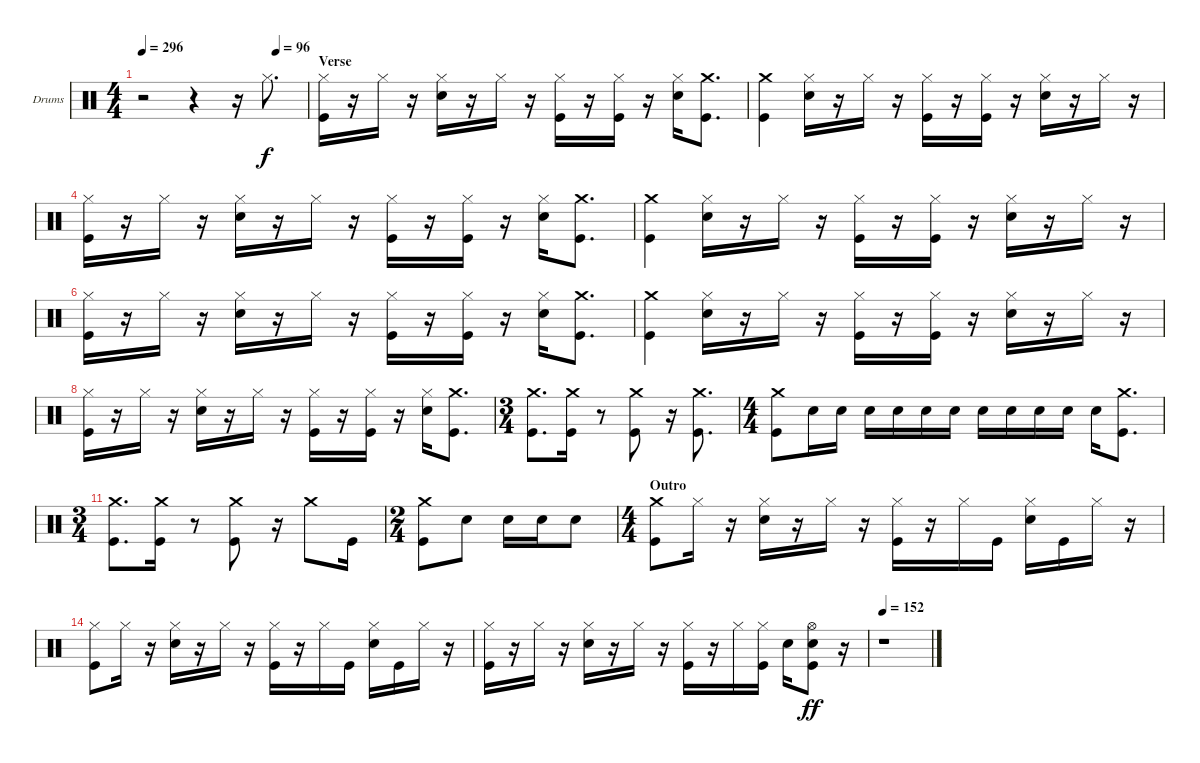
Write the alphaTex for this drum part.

\bracketExtendMode nobrackets
\firstSystemTrackNameOrientation horizontal
\otherSystemsTrackNameOrientation horizontal
\defaultBarNumberDisplay FirstOfSystem
\track ("Drumkit" "Drums") {instrument percussion}
\staff {score}
\articulation defaults
\ts (4 4)
\tempo 296
\tempo (96 0.8125)
\clef neutral
\ks c
r.2{dy f} r.4 r.16 "Hi-Hat (closed)".8{d} |
\section ("" "Verse")
("Hi-Hat (closed)" "Kick (hit)").16 r.16 "Hi-Hat (closed)".16 r.16 ("Snare (hit) 2" "Hi-Hat (closed)").16 r.16 "Hi-Hat (closed)".16 r.16 ("Kick (hit)" "Hi-Hat (closed)").16 r.16 ("Kick (hit)" "Hi-Hat (closed)").16 r.16 ("Hi-Hat (closed)" "Snare (hit) 2").16 ("Crash medium (hit)" "Kick (hit)").8{d} |
\scale
0.240586 ("Crash medium (hit)" "Kick (hit)").4 ("Snare (hit) 2" "Hi-Hat (closed)").16 r.16 "Hi-Hat (closed)".16 r.16 ("Kick (hit)" "Hi-Hat (closed)").16 r.16 ("Kick (hit)" "Hi-Hat (closed)").16 r.16 ("Snare (hit) 2" "Hi-Hat (closed)").16 r.16 "Hi-Hat (closed)".16 r.16 |
\scale
0.213551 ("Hi-Hat (closed)" "Kick (hit)").16 r.16 "Hi-Hat (closed)".16 r.16 ("Snare (hit) 2" "Hi-Hat (closed)").16 r.16 "Hi-Hat (closed)".16 r.16 ("Hi-Hat (closed)" "Kick (hit)").16 r.16 ("Kick (hit)" "Hi-Hat (closed)").16 r.16 ("Hi-Hat (closed)" "Snare (hit) 2").16 ("Crash medium (hit)" "Kick (hit)").8{d} |
\scale
0.286412 ("Crash medium (hit)" "Kick (hit)").4 ("Snare (hit) 2" "Hi-Hat (closed)").16 r.16 "Hi-Hat (closed)".16 r.16 ("Kick (hit)" "Hi-Hat (closed)").16 r.16 ("Kick (hit)" "Hi-Hat (closed)").16 r.16 ("Snare (hit) 2" "Hi-Hat (closed)").16 r.16 "Hi-Hat (closed)".16 r.16 |
\scale
0.259414 ("Hi-Hat (closed)" "Kick (hit)").16 r.16 "Hi-Hat (closed)".16 r.16 ("Snare (hit) 2" "Hi-Hat (closed)").16 r.16 "Hi-Hat (closed)".16 r.16 ("Hi-Hat (closed)" "Kick (hit)").16 r.16 ("Kick (hit)" "Hi-Hat (closed)").16 r.16 ("Hi-Hat (closed)" "Snare (hit) 2").16 ("Crash medium (hit)" "Kick (hit)").8{d} |
("Crash medium (hit)" "Kick (hit)").4 ("Snare (hit) 2" "Hi-Hat (closed)").16 r.16 "Hi-Hat (closed)".16 r.16 ("Kick (hit)" "Hi-Hat (closed)").16 r.16 ("Kick (hit)" "Hi-Hat (closed)").16 r.16 ("Snare (hit) 2" "Hi-Hat (closed)").16 r.16 "Hi-Hat (closed)".16 r.16 |
("Hi-Hat (closed)" "Kick (hit)").16 r.16 "Hi-Hat (closed)".16 r.16 ("Hi-Hat (closed)" "Snare (hit) 2").16 r.16 "Hi-Hat (closed)".16 r.16 ("Hi-Hat (closed)" "Kick (hit)").16 r.16 ("Hi-Hat (closed)" "Kick (hit)").16 r.16 ("Hi-Hat (closed)" "Snare (hit) 2").16 ("Crash medium (hit)" "Kick (hit)").8{d} |
\ts (3 4)
("Crash medium (hit)" "Kick (hit)").8{d} ("Crash medium (hit)" "Kick (hit)").16 r.8 ("Crash medium (hit)" "Kick (hit)").8 r.16 ("Crash medium (hit)" "Kick (hit)").8{d} |
\ts (4 4)
("Crash medium (hit)" "Kick (hit)").8 "Snare (hit) 2".16 "Snare (hit) 2".16 "Snare (hit) 2".16 "Snare (hit) 2".16 "Snare (hit) 2".16 "Snare (hit) 2".16 "Snare (hit) 2".16 "Snare (hit) 2".16 "Snare (hit) 2".16 "Snare (hit) 2".16 "Snare (hit) 2".16 ("Crash medium (hit)" "Kick (hit)").8{d} |
\ts (3 4)
("Crash medium (hit)" "Kick (hit)").8{d} ("Crash medium (hit)" "Kick (hit)").16 r.8 ("Crash medium (hit)" "Kick (hit)").8 r.16 "Crash medium (hit)".8 "Kick (hit)".16 |
\ts (2 4)
("Crash medium (hit)" "Kick (hit)").8 "Snare (hit) 2".8 "Snare (hit) 2".16 "Snare (hit) 2".16 "Snare (hit) 2".8 |
\ts (4 4)
\section ("" "Outro")
("Crash medium (hit)" "Kick (hit)").8 "Hi-Hat (closed)".16 r.16 ("Snare (hit) 2" "Hi-Hat (closed)").16 r.16 "Hi-Hat (closed)".16 r.16 ("Kick (hit)" "Hi-Hat (closed)").16 r.16 "Hi-Hat (closed)".16 "Kick (hit)".16 ("Snare (hit) 2" "Hi-Hat (closed)").16 "Kick (hit)".16 "Hi-Hat (closed)".16 r.16 |
("Kick (hit)" "Hi-Hat (closed)").8 "Hi-Hat (closed)".16 r.16 ("Snare (hit) 2" "Hi-Hat (closed)").16 r.16 "Hi-Hat (closed)".16 r.16 ("Kick (hit)" "Hi-Hat (closed)").16 r.16 "Hi-Hat (closed)".16 "Kick (hit)".16 ("Snare (hit) 2" "Hi-Hat (closed)").16 "Kick (hit)".16 "Hi-Hat (closed)".16 r.16 |
("Hi-Hat (closed)" "Kick (hit)").16 r.16 "Hi-Hat (closed)".16 r.16 ("Hi-Hat (closed)" "Snare (hit) 2").16 r.16 "Hi-Hat (closed)".16 r.16 ("Kick (hit)" "Hi-Hat (closed)").16 r.16 "Hi-Hat (closed)".16 ("Kick (hit)" "Hi-Hat (closed)").16 "Snare (hit) 2".16 ("Hi-Hat (open)" "Snare (hit) 2" "Kick (hit)").8{dy ff} r.16 |
\tempo 152
r.1
